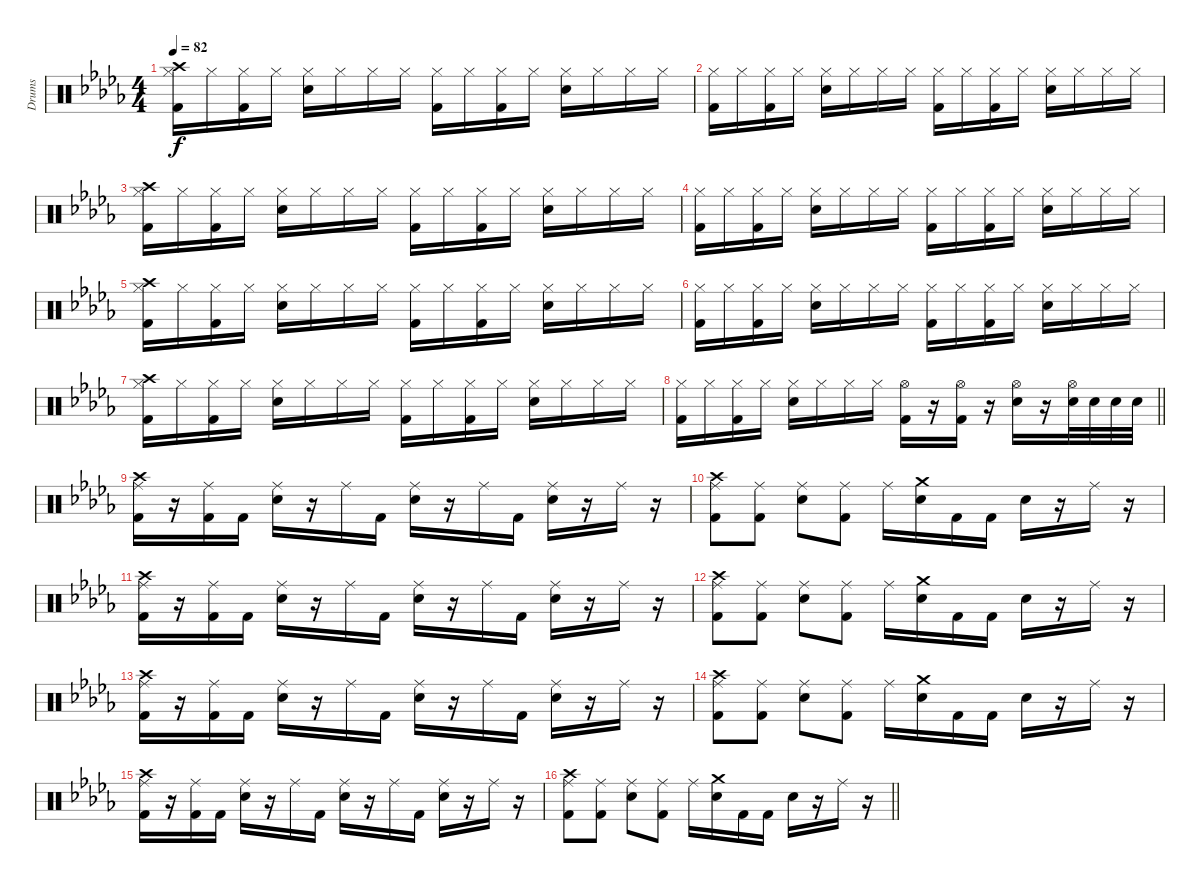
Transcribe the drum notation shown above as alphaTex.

\track ("Drums" "Drums") {instrument percussion}
\staff {score}
\articulation defaults
\ts (4 4)
\section ("" "")
\tempo 82
\clef neutral
\ks db
("Crash high (hit)" "Hi-Hat (closed)" "Kick (hit) 2").16{dy f} "Hi-Hat (closed)".16 ("Hi-Hat (closed)" "Kick (hit) 2").16 "Hi-Hat (closed)".16 ("Hi-Hat (closed)" "Electric Snare (hit)").16 "Hi-Hat (closed)".16 "Hi-Hat (closed)".16 "Hi-Hat (closed)".16 ("Hi-Hat (closed)" "Kick (hit) 2").16 "Hi-Hat (closed)".16 ("Hi-Hat (closed)" "Kick (hit) 2").16 "Hi-Hat (closed)".16 ("Hi-Hat (closed)" "Electric Snare (hit)").16 "Hi-Hat (closed)".16 "Hi-Hat (closed)".16 "Hi-Hat (closed)".16 |
("Hi-Hat (closed)" "Kick (hit) 2").16 "Hi-Hat (closed)".16 ("Hi-Hat (closed)" "Kick (hit) 2").16 "Hi-Hat (closed)".16 ("Hi-Hat (closed)" "Electric Snare (hit)").16 "Hi-Hat (closed)".16 "Hi-Hat (closed)".16 "Hi-Hat (closed)".16 ("Hi-Hat (closed)" "Kick (hit) 2").16 "Hi-Hat (closed)".16 ("Hi-Hat (closed)" "Kick (hit) 2").16 "Hi-Hat (closed)".16 ("Hi-Hat (closed)" "Electric Snare (hit)").16 "Hi-Hat (closed)".16 "Hi-Hat (closed)".16 "Hi-Hat (closed)".16 |
("Crash high (hit)" "Hi-Hat (closed)" "Kick (hit) 2").16 "Hi-Hat (closed)".16 ("Hi-Hat (closed)" "Kick (hit) 2").16 "Hi-Hat (closed)".16 ("Hi-Hat (closed)" "Electric Snare (hit)").16 "Hi-Hat (closed)".16 "Hi-Hat (closed)".16 "Hi-Hat (closed)".16 ("Hi-Hat (closed)" "Kick (hit) 2").16 "Hi-Hat (closed)".16 ("Hi-Hat (closed)" "Kick (hit) 2").16 "Hi-Hat (closed)".16 ("Hi-Hat (closed)" "Electric Snare (hit)").16 "Hi-Hat (closed)".16 "Hi-Hat (closed)".16 "Hi-Hat (closed)".16 |
("Hi-Hat (closed)" "Kick (hit) 2").16 "Hi-Hat (closed)".16 ("Hi-Hat (closed)" "Kick (hit) 2").16 "Hi-Hat (closed)".16 ("Hi-Hat (closed)" "Electric Snare (hit)").16 "Hi-Hat (closed)".16 "Hi-Hat (closed)".16 "Hi-Hat (closed)".16 ("Hi-Hat (closed)" "Kick (hit) 2").16 "Hi-Hat (closed)".16 ("Hi-Hat (closed)" "Kick (hit) 2").16 "Hi-Hat (closed)".16 ("Hi-Hat (closed)" "Electric Snare (hit)").16 "Hi-Hat (closed)".16 "Hi-Hat (closed)".16 "Hi-Hat (closed)".16 |
("Crash high (hit)" "Hi-Hat (closed)" "Kick (hit) 2").16 "Hi-Hat (closed)".16 ("Hi-Hat (closed)" "Kick (hit) 2").16 "Hi-Hat (closed)".16 ("Hi-Hat (closed)" "Electric Snare (hit)").16 "Hi-Hat (closed)".16 "Hi-Hat (closed)".16 "Hi-Hat (closed)".16 ("Hi-Hat (closed)" "Kick (hit) 2").16 "Hi-Hat (closed)".16 ("Hi-Hat (closed)" "Kick (hit) 2").16 "Hi-Hat (closed)".16 ("Hi-Hat (closed)" "Electric Snare (hit)").16 "Hi-Hat (closed)".16 "Hi-Hat (closed)".16 "Hi-Hat (closed)".16 |
("Hi-Hat (closed)" "Kick (hit) 2").16 "Hi-Hat (closed)".16 ("Hi-Hat (closed)" "Kick (hit) 2").16 "Hi-Hat (closed)".16 ("Hi-Hat (closed)" "Electric Snare (hit)").16 "Hi-Hat (closed)".16 "Hi-Hat (closed)".16 "Hi-Hat (closed)".16 ("Hi-Hat (closed)" "Kick (hit) 2").16 "Hi-Hat (closed)".16 ("Hi-Hat (closed)" "Kick (hit) 2").16 "Hi-Hat (closed)".16 ("Hi-Hat (closed)" "Electric Snare (hit)").16 "Hi-Hat (closed)".16 "Hi-Hat (closed)".16 "Hi-Hat (closed)".16 |
("Crash high (hit)" "Hi-Hat (closed)" "Kick (hit) 2").16 "Hi-Hat (closed)".16 ("Hi-Hat (closed)" "Kick (hit) 2").16 "Hi-Hat (closed)".16 ("Hi-Hat (closed)" "Electric Snare (hit)").16 "Hi-Hat (closed)".16 "Hi-Hat (closed)".16 "Hi-Hat (closed)".16 ("Hi-Hat (closed)" "Kick (hit) 2").16 "Hi-Hat (closed)".16 ("Hi-Hat (closed)" "Kick (hit) 2").16 "Hi-Hat (closed)".16 ("Hi-Hat (closed)" "Electric Snare (hit)").16 "Hi-Hat (closed)".16 "Hi-Hat (closed)".16 "Hi-Hat (closed)".16 |
\barLineRight lightlight
("Hi-Hat (closed)" "Kick (hit) 2").16 "Hi-Hat (closed)".16 ("Hi-Hat (closed)" "Kick (hit) 2").16 "Hi-Hat (closed)".16 ("Hi-Hat (closed)" "Electric Snare (hit)").16 "Hi-Hat (closed)".16 "Hi-Hat (closed)".16 "Hi-Hat (closed)".16 ("Hi-Hat (open)" "Kick (hit) 2").16 r.16 ("Hi-Hat (open)" "Kick (hit) 2").16 r.16 ("Hi-Hat (open)" "Electric Snare (hit)").16 r.16 ("Hi-Hat (open)" "Electric Snare (hit)").32 "Electric Snare (hit)".32 "Electric Snare (hit)".32 "Electric Snare (hit)".32 |
\section ("" "")
("Crash high (hit)" "Ride (middle)" "Kick (hit) 2").16 r.16 ("Ride (middle)" "Kick (hit) 2").16 "Kick (hit) 2".16 ("Ride (middle)" "Electric Snare (hit)").16 r.16 "Ride (middle)".16 "Kick (hit) 2".16 ("Ride (middle)" "Electric Snare (hit)").16 r.16 "Ride (middle)".16 "Kick (hit) 2".16 ("Ride (middle)" "Electric Snare (hit)").16 r.16 "Ride (middle)".16 r.16 |
("Crash high (hit)" "Ride (middle)" "Kick (hit) 2").8 ("Ride (middle)" "Kick (hit) 2").8 ("Ride (middle)" "Electric Snare (hit)").8 ("Ride (middle)" "Kick (hit) 2").8 "Ride (middle)".16 ("Crash medium (hit)" "Electric Snare (hit)").16 "Kick (hit) 2".16 "Kick (hit) 2".16 "Electric Snare (hit)".16 r.16 "Ride (middle)".16 r.16 |
("Crash high (hit)" "Ride (middle)" "Kick (hit) 2").16 r.16 ("Ride (middle)" "Kick (hit) 2").16 "Kick (hit) 2".16 ("Ride (middle)" "Electric Snare (hit)").16 r.16 "Ride (middle)".16 "Kick (hit) 2".16 ("Ride (middle)" "Electric Snare (hit)").16 r.16 "Ride (middle)".16 "Kick (hit) 2".16 ("Ride (middle)" "Electric Snare (hit)").16 r.16 "Ride (middle)".16 r.16 |
("Crash high (hit)" "Ride (middle)" "Kick (hit) 2").8 ("Ride (middle)" "Kick (hit) 2").8 ("Ride (middle)" "Electric Snare (hit)").8 ("Ride (middle)" "Kick (hit) 2").8 "Ride (middle)".16 ("Crash medium (hit)" "Electric Snare (hit)").16 "Kick (hit) 2".16 "Kick (hit) 2".16 "Electric Snare (hit)".16 r.16 "Ride (middle)".16 r.16 |
("Crash high (hit)" "Ride (middle)" "Kick (hit) 2").16 r.16 ("Ride (middle)" "Kick (hit) 2").16 "Kick (hit) 2".16 ("Ride (middle)" "Electric Snare (hit)").16 r.16 "Ride (middle)".16 "Kick (hit) 2".16 ("Ride (middle)" "Electric Snare (hit)").16 r.16 "Ride (middle)".16 "Kick (hit) 2".16 ("Ride (middle)" "Electric Snare (hit)").16 r.16 "Ride (middle)".16 r.16 |
("Crash high (hit)" "Ride (middle)" "Kick (hit) 2").8 ("Ride (middle)" "Kick (hit) 2").8 ("Ride (middle)" "Electric Snare (hit)").8 ("Ride (middle)" "Kick (hit) 2").8 "Ride (middle)".16 ("Crash medium (hit)" "Electric Snare (hit)").16 "Kick (hit) 2".16 "Kick (hit) 2".16 "Electric Snare (hit)".16 r.16 "Ride (middle)".16 r.16 |
("Crash high (hit)" "Ride (middle)" "Kick (hit) 2").16 r.16 ("Ride (middle)" "Kick (hit) 2").16 "Kick (hit) 2".16 ("Ride (middle)" "Electric Snare (hit)").16 r.16 "Ride (middle)".16 "Kick (hit) 2".16 ("Ride (middle)" "Electric Snare (hit)").16 r.16 "Ride (middle)".16 "Kick (hit) 2".16 ("Ride (middle)" "Electric Snare (hit)").16 r.16 "Ride (middle)".16 r.16 |
\barLineRight lightlight
("Crash high (hit)" "Ride (middle)" "Kick (hit) 2").8 ("Ride (middle)" "Kick (hit) 2").8 ("Ride (middle)" "Electric Snare (hit)").8 ("Ride (middle)" "Kick (hit) 2").8 "Ride (middle)".16 ("Crash medium (hit)" "Electric Snare (hit)").16 "Kick (hit) 2".16 "Kick (hit) 2".16 "Electric Snare (hit)".16 r.16 "Ride (middle)".16 r.16
